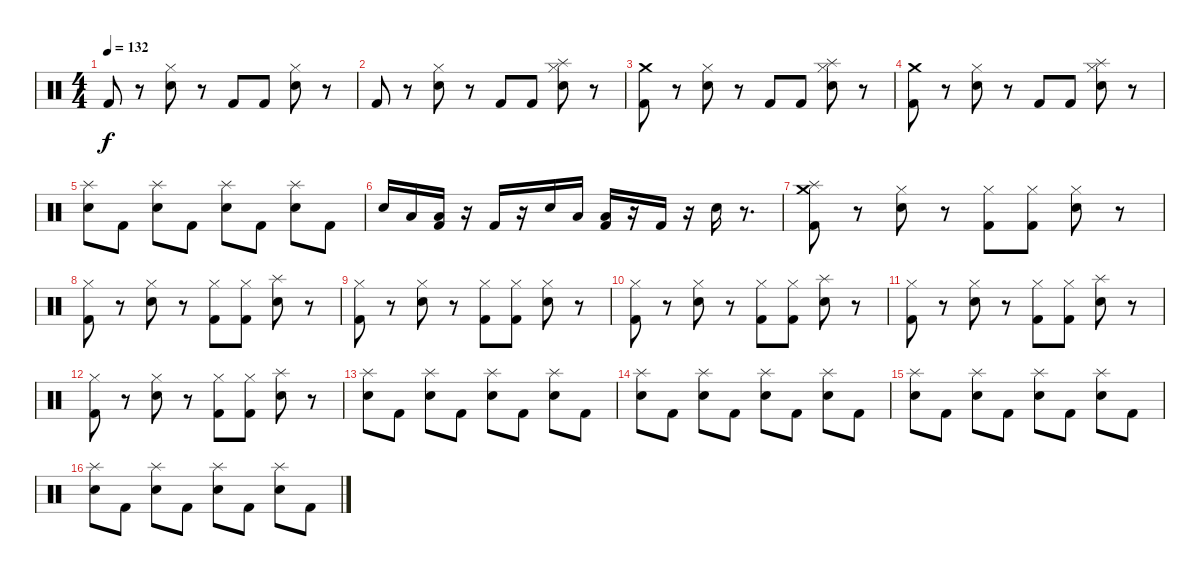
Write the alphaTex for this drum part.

\track "" {instrument percussion}
\staff {score}
\articulation defaults
\ts (4 4)
\tempo 132
\clef neutral
\ks c "Kick (hit) 2".8{dy f}
r.8 ("Hi-Hat (closed)" "Electric Snare (hit)").8 r.8 "Kick (hit) 2".8 "Kick (hit) 2".8 ("Hi-Hat (closed)" "Electric Snare (hit)").8 r.8 |
"Kick (hit) 2".8 r.8 ("Hi-Hat (closed)" "Electric Snare (hit)").8 r.8 "Kick (hit) 2".8 "Kick (hit) 2".8 ("Hi-Hat (closed)" "Splash (hit)" "Electric Snare (hit)").8 r.8 |
("Crash medium (hit)" "Kick (hit) 2").8 r.8 ("Hi-Hat (closed)" "Electric Snare (hit)").8 r.8 "Kick (hit) 2".8 "Kick (hit) 2".8 ("Hi-Hat (closed)" "Splash (hit)" "Electric Snare (hit)").8 r.8 |
("Crash medium (hit)" "Kick (hit) 2").8 r.8 ("Hi-Hat (closed)" "Electric Snare (hit)").8 r.8 "Kick (hit) 2".8 "Kick (hit) 2".8 ("Hi-Hat (closed)" "Splash (hit)" "Electric Snare (hit)").8 r.8 |
("Splash (hit)" "Electric Snare (hit)").8 "Kick (hit) 2".8 ("Splash (hit)" "Electric Snare (hit)").8 "Kick (hit) 2".8 ("Splash (hit)" "Electric Snare (hit)").8 "Kick (hit) 2".8 ("Splash (hit)" "Electric Snare (hit)").8 "Kick (hit) 2".8 |
"Electric Snare (hit)".16 "Low Tom (hit)".16 ("Low Tom (hit)" "Kick (hit) 2").16 r.16 "Kick (hit) 2".16 r.16 "Electric Snare (hit)".16 "Low Tom (hit)".16 ("Kick (hit) 2" "Low Tom (hit)").16 r.16 "Kick (hit) 2".16 r.16 "Electric Snare (hit)".16 r.8{d} |
("Splash (hit)" "Crash medium (hit)" "Kick (hit) 2").8 r.8 ("Hi-Hat (closed)" "Electric Snare (hit)").8 r.8 ("Hi-Hat (closed)" "Kick (hit) 2").8 ("Hi-Hat (closed)" "Kick (hit) 2").8 ("Hi-Hat (closed)" "Electric Snare (hit)").8 r.8 |
("Hi-Hat (closed)" "Kick (hit) 2").8 r.8 ("Hi-Hat (closed)" "Electric Snare (hit)").8 r.8 ("Hi-Hat (closed)" "Kick (hit) 2").8 ("Hi-Hat (closed)" "Kick (hit) 2").8 ("Splash (hit)" "Electric Snare (hit)").8 r.8 |
("Hi-Hat (closed)" "Kick (hit) 2").8 r.8 ("Hi-Hat (closed)" "Electric Snare (hit)").8 r.8 ("Hi-Hat (closed)" "Kick (hit) 2").8 ("Hi-Hat (closed)" "Kick (hit) 2").8 ("Hi-Hat (closed)" "Electric Snare (hit)").8 r.8 |
("Hi-Hat (closed)" "Kick (hit) 2").8 r.8 ("Hi-Hat (closed)" "Electric Snare (hit)").8 r.8 ("Hi-Hat (closed)" "Kick (hit) 2").8 ("Hi-Hat (closed)" "Kick (hit) 2").8 ("Splash (hit)" "Electric Snare (hit)").8 r.8 |
("Hi-Hat (closed)" "Kick (hit) 2").8 r.8 ("Hi-Hat (closed)" "Electric Snare (hit)").8 r.8 ("Hi-Hat (closed)" "Kick (hit) 2").8 ("Hi-Hat (closed)" "Kick (hit) 2").8 ("Splash (hit)" "Electric Snare (hit)").8 r.8 |
("Hi-Hat (closed)" "Kick (hit) 2").8 r.8 ("Hi-Hat (closed)" "Electric Snare (hit)").8 r.8 ("Hi-Hat (closed)" "Kick (hit) 2").8 ("Hi-Hat (closed)" "Kick (hit) 2").8 ("Splash (hit)" "Electric Snare (hit)").8 r.8 |
("Splash (hit)" "Electric Snare (hit)").8 "Kick (hit) 2".8 ("Splash (hit)" "Electric Snare (hit)").8 "Kick (hit) 2".8 ("Splash (hit)" "Electric Snare (hit)").8 "Kick (hit) 2".8 ("Splash (hit)" "Electric Snare (hit)").8 "Kick (hit) 2".8 |
("Splash (hit)" "Electric Snare (hit)").8 "Kick (hit) 2".8 ("Splash (hit)" "Electric Snare (hit)").8 "Kick (hit) 2".8 ("Splash (hit)" "Electric Snare (hit)").8 "Kick (hit) 2".8 ("Splash (hit)" "Electric Snare (hit)").8 "Kick (hit) 2".8 |
("Splash (hit)" "Electric Snare (hit)").8 "Kick (hit) 2".8 ("Splash (hit)" "Electric Snare (hit)").8 "Kick (hit) 2".8 ("Splash (hit)" "Electric Snare (hit)").8 "Kick (hit) 2".8 ("Splash (hit)" "Electric Snare (hit)").8 "Kick (hit) 2".8 |
("Splash (hit)" "Electric Snare (hit)").8 "Kick (hit) 2".8 ("Splash (hit)" "Electric Snare (hit)").8 "Kick (hit) 2".8 ("Splash (hit)" "Electric Snare (hit)").8 "Kick (hit) 2".8 ("Splash (hit)" "Electric Snare (hit)").8 "Kick (hit) 2".8
